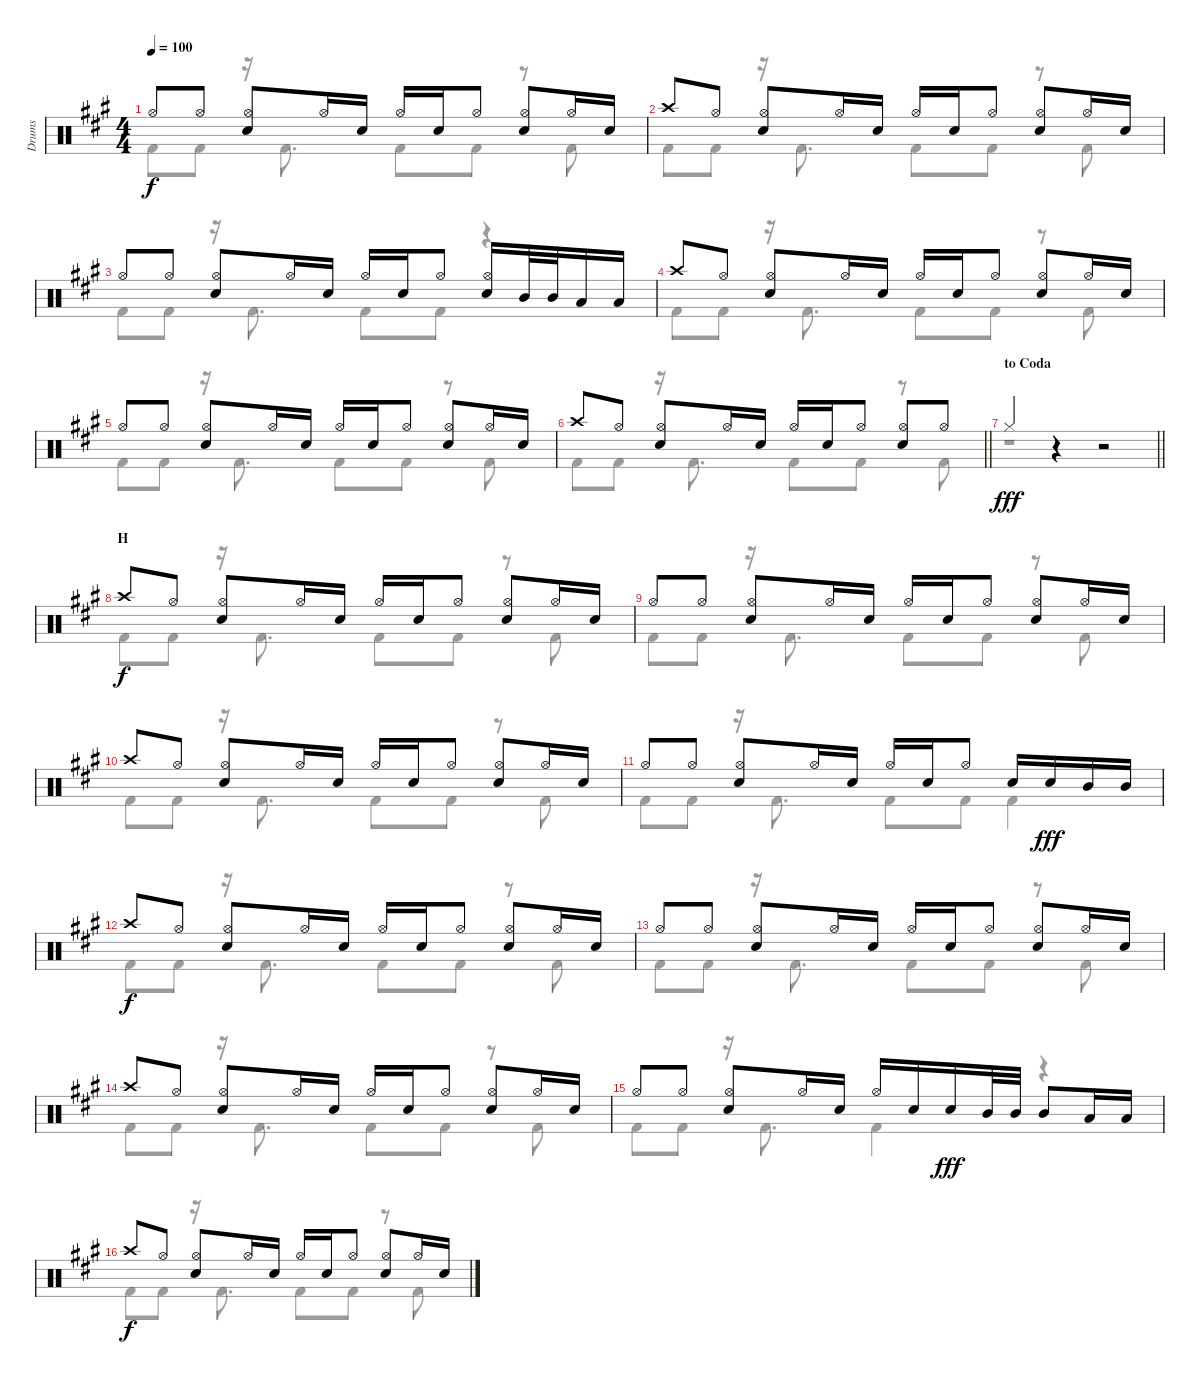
\track ("Drums" "Drums") {instrument percussion}
\staff {score}
\articulation defaults
\voice
\ts (4 4)
\tempo 100
\clef neutral
\ks a "Hi-Hat (open)".8{dy f} "Hi-Hat (open)".8
("Hi-Hat (open)" "Electric Snare (hit)").8 "Hi-Hat (open)".16 "Electric Snare (hit)".16 "Hi-Hat (open)".16 "Electric Snare (hit)".16 "Hi-Hat (open)".8 ("Hi-Hat (open)" "Electric Snare (hit)").8 "Hi-Hat (open)".16 "Electric Snare (hit)".16 |
"Crash high (hit)".8 "Hi-Hat (open)".8 ("Hi-Hat (open)" "Electric Snare (hit)").8 "Hi-Hat (open)".16 "Electric Snare (hit)".16 "Hi-Hat (open)".16 "Electric Snare (hit)".16 "Hi-Hat (open)".8 ("Hi-Hat (open)" "Electric Snare (hit)").8 "Hi-Hat (open)".16 "Electric Snare (hit)".16 |
"Hi-Hat (open)".8 "Hi-Hat (open)".8 ("Hi-Hat (open)" "Electric Snare (hit)").8 "Hi-Hat (open)".16 "Electric Snare (hit)".16 "Hi-Hat (open)".16 "Electric Snare (hit)".16 "Hi-Hat (open)".8 ("Hi-Hat (open)" "Electric Snare (hit)").16 "Mid Tom (hit)".32 "Mid Tom (hit)".32 "Low Tom (hit)".16 "Low Tom (hit)".16 |
"Crash high (hit)".8 "Hi-Hat (open)".8 ("Hi-Hat (open)" "Electric Snare (hit)").8 "Hi-Hat (open)".16 "Electric Snare (hit)".16 "Hi-Hat (open)".16 "Electric Snare (hit)".16 "Hi-Hat (open)".8 ("Hi-Hat (open)" "Electric Snare (hit)").8 "Hi-Hat (open)".16 "Electric Snare (hit)".16 |
"Hi-Hat (open)".8 "Hi-Hat (open)".8 ("Hi-Hat (open)" "Electric Snare (hit)").8 "Hi-Hat (open)".16 "Electric Snare (hit)".16 "Hi-Hat (open)".16 "Electric Snare (hit)".16 "Hi-Hat (open)".8 ("Hi-Hat (open)" "Electric Snare (hit)").8 "Hi-Hat (open)".16 "Electric Snare (hit)".16 |
\barLineRight lightlight "Crash high (hit)".8 "Hi-Hat (open)".8
("Hi-Hat (open)" "Electric Snare (hit)").8 "Hi-Hat (open)".16 "Electric Snare (hit)".16 "Hi-Hat (open)".16 "Electric Snare (hit)".16 "Hi-Hat (open)".8 ("Hi-Hat (open)" "Electric Snare (hit)").8 "Hi-Hat (open)".8 |
\section ("" "to Coda")
\barLineRight lightlight "Hi-Hat (closed)".4{dy fff}
r.4 r.2 |
\section ("" "H")
"Crash high (hit)".8{dy f} "Hi-Hat (open)".8 ("Hi-Hat (open)" "Electric Snare (hit)").8 "Hi-Hat (open)".16 "Electric Snare (hit)".16 "Hi-Hat (open)".16 "Electric Snare (hit)".16 "Hi-Hat (open)".8 ("Hi-Hat (open)" "Electric Snare (hit)").8 "Hi-Hat (open)".16 "Electric Snare (hit)".16 |
"Hi-Hat (open)".8 "Hi-Hat (open)".8 ("Hi-Hat (open)" "Electric Snare (hit)").8 "Hi-Hat (open)".16 "Electric Snare (hit)".16 "Hi-Hat (open)".16 "Electric Snare (hit)".16 "Hi-Hat (open)".8 ("Hi-Hat (open)" "Electric Snare (hit)").8 "Hi-Hat (open)".16 "Electric Snare (hit)".16 |
"Crash high (hit)".8 "Hi-Hat (open)".8 ("Hi-Hat (open)" "Electric Snare (hit)").8 "Hi-Hat (open)".16 "Electric Snare (hit)".16 "Hi-Hat (open)".16 "Electric Snare (hit)".16 "Hi-Hat (open)".8 ("Hi-Hat (open)" "Electric Snare (hit)").8 "Hi-Hat (open)".16 "Electric Snare (hit)".16 |
"Hi-Hat (open)".8 "Hi-Hat (open)".8 ("Hi-Hat (open)" "Electric Snare (hit)").8 "Hi-Hat (open)".16 "Electric Snare (hit)".16 "Hi-Hat (open)".16 "Electric Snare (hit)".16 "Hi-Hat (open)".8 "Electric Snare (hit)".16 "Electric Snare (hit)".16{dy fff} "Mid Tom (hit)".16 "Mid Tom (hit)".16 |
"Crash high (hit)".8{dy f} "Hi-Hat (open)".8 ("Hi-Hat (open)" "Electric Snare (hit)").8 "Hi-Hat (open)".16 "Electric Snare (hit)".16 "Hi-Hat (open)".16 "Electric Snare (hit)".16 "Hi-Hat (open)".8 ("Hi-Hat (open)" "Electric Snare (hit)").8 "Hi-Hat (open)".16 "Electric Snare (hit)".16 |
"Hi-Hat (open)".8 "Hi-Hat (open)".8 ("Hi-Hat (open)" "Electric Snare (hit)").8 "Hi-Hat (open)".16 "Electric Snare (hit)".16 "Hi-Hat (open)".16 "Electric Snare (hit)".16 "Hi-Hat (open)".8 ("Hi-Hat (open)" "Electric Snare (hit)").8 "Hi-Hat (open)".16 "Electric Snare (hit)".16 |
"Crash high (hit)".8 "Hi-Hat (open)".8 ("Hi-Hat (open)" "Electric Snare (hit)").8 "Hi-Hat (open)".16 "Electric Snare (hit)".16 "Hi-Hat (open)".16 "Electric Snare (hit)".16 "Hi-Hat (open)".8 ("Hi-Hat (open)" "Electric Snare (hit)").8 "Hi-Hat (open)".16 "Electric Snare (hit)".16 |
"Hi-Hat (open)".8 "Hi-Hat (open)".8 ("Hi-Hat (open)" "Electric Snare (hit)").8 "Hi-Hat (open)".16 "Electric Snare (hit)".16 "Hi-Hat (open)".16 "Electric Snare (hit)".16 "Electric Snare (hit)".16{dy fff} "Mid Tom (hit)".32 "Mid Tom (hit)".32 "Mid Tom (hit)".8 "Low Tom (hit)".16 "Low Tom (hit)".16 |
"Crash high (hit)".8{dy f} "Hi-Hat (open)".8 ("Hi-Hat (open)" "Electric Snare (hit)").8 "Hi-Hat (open)".16 "Electric Snare (hit)".16 "Hi-Hat (open)".16 "Electric Snare (hit)".16 "Hi-Hat (open)".8 ("Hi-Hat (open)" "Electric Snare (hit)").8 "Hi-Hat (open)".16 "Electric Snare (hit)".16
\voice
\clef neutral
\ottava regular
\simile none
\ks a "Kick (hit) 2".8{dy f} "Kick (hit) 2".8
r.16 "Kick (hit) 2".8{d} "Kick (hit) 2".8 "Kick (hit) 2".8 r.8 "Kick (hit) 2".8 |
"Kick (hit) 2".8 "Kick (hit) 2".8 r.16 "Kick (hit) 2".8{d} "Kick (hit) 2".8 "Kick (hit) 2".8 r.8 "Kick (hit) 2".8 |
"Kick (hit) 2".8 "Kick (hit) 2".8 r.16 "Kick (hit) 2".8{d} "Kick (hit) 2".8 "Kick (hit) 2".8 r.4 |
"Kick (hit) 2".8 "Kick (hit) 2".8 r.16 "Kick (hit) 2".8{d} "Kick (hit) 2".8 "Kick (hit) 2".8 r.8 "Kick (hit) 2".8 |
"Kick (hit) 2".8 "Kick (hit) 2".8 r.16 "Kick (hit) 2".8{d} "Kick (hit) 2".8 "Kick (hit) 2".8 r.8 "Kick (hit) 2".8 |
\barLineRight lightlight "Kick (hit) 2".8 "Kick (hit) 2".8
r.16 "Kick (hit) 2".8{d} "Kick (hit) 2".8 "Kick (hit) 2".8 r.8 "Kick (hit) 2".8 |
\barLineRight lightlight
r.1 |
"Kick (hit) 2".8 "Kick (hit) 2".8 r.16 "Kick (hit) 2".8{d} "Kick (hit) 2".8 "Kick (hit) 2".8 r.8 "Kick (hit) 2".8 |
"Kick (hit) 2".8 "Kick (hit) 2".8 r.16 "Kick (hit) 2".8{d} "Kick (hit) 2".8 "Kick (hit) 2".8 r.8 "Kick (hit) 2".8 |
"Kick (hit) 2".8 "Kick (hit) 2".8 r.16 "Kick (hit) 2".8{d} "Kick (hit) 2".8 "Kick (hit) 2".8 r.8 "Kick (hit) 2".8 |
"Kick (hit) 2".8 "Kick (hit) 2".8 r.16 "Kick (hit) 2".8{d} "Kick (hit) 2".8 "Kick (hit) 2".8 "Kick (hit) 2".4 |
"Kick (hit) 2".8 "Kick (hit) 2".8 r.16 "Kick (hit) 2".8{d} "Kick (hit) 2".8 "Kick (hit) 2".8 r.8 "Kick (hit) 2".8 |
"Kick (hit) 2".8 "Kick (hit) 2".8 r.16 "Kick (hit) 2".8{d} "Kick (hit) 2".8 "Kick (hit) 2".8 r.8 "Kick (hit) 2".8 |
"Kick (hit) 2".8 "Kick (hit) 2".8 r.16 "Kick (hit) 2".8{d} "Kick (hit) 2".8 "Kick (hit) 2".8 r.8 "Kick (hit) 2".8 |
"Kick (hit) 2".8 "Kick (hit) 2".8 r.16 "Kick (hit) 2".8{d} "Kick (hit) 2".4 r.4 |
"Kick (hit) 2".8 "Kick (hit) 2".8 r.16 "Kick (hit) 2".8{d} "Kick (hit) 2".8 "Kick (hit) 2".8 r.8 "Kick (hit) 2".8
